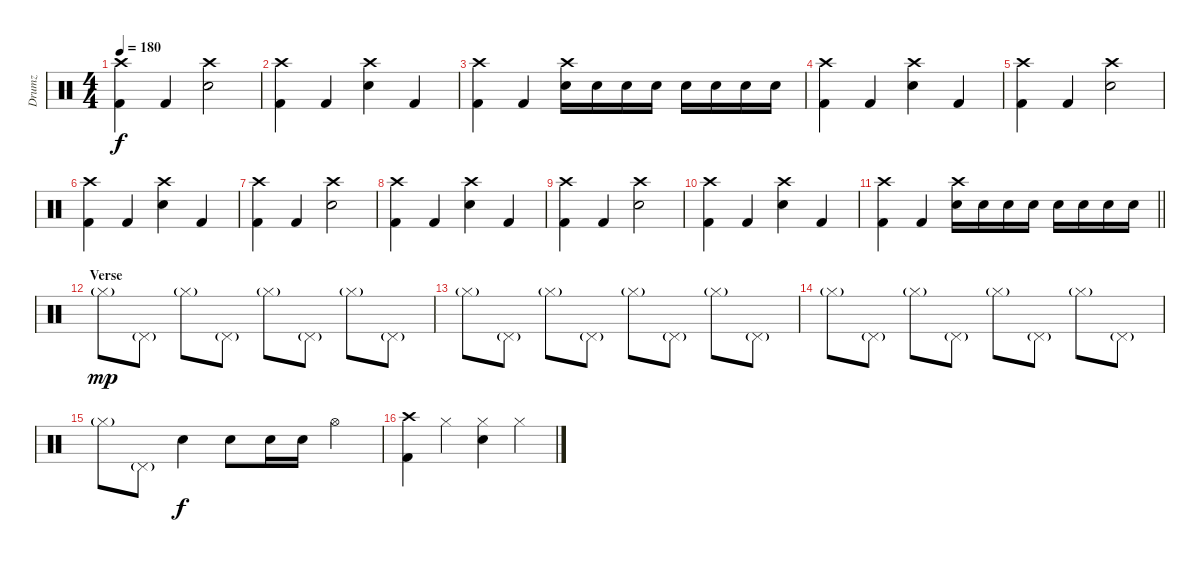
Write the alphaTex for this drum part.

\track ("Drumz" "Drumz") {instrument percussion}
\staff {score}
\articulation defaults
\ts (4 4)
\tempo 180
\clef neutral
\ks c
("Crash high (hit)" "Kick (hit) 2").4{dy f} "Kick (hit) 2".4 ("Crash high (hit)" "Snare (hit) 2").2 |
("Kick (hit) 2" "Crash high (hit)").4 "Kick (hit) 2".4 ("Snare (hit) 2" "Crash high (hit)").4 "Kick (hit) 2".4 |
("Crash high (hit)" "Kick (hit) 2").4 "Kick (hit) 2".4 ("Crash high (hit)" "Electric Snare (hit)").16 "Electric Snare (hit)".16 "Electric Snare (hit)".16 "Electric Snare (hit)".16 "Electric Snare (hit)".16 "Electric Snare (hit)".16 "Electric Snare (hit)".16 "Electric Snare (hit)".16 |
("Kick (hit) 2" "Crash high (hit)").4 "Kick (hit) 2".4 ("Snare (hit) 2" "Crash high (hit)").4 "Kick (hit) 2".4 |
("Crash high (hit)" "Kick (hit) 2").4 "Kick (hit) 2".4 ("Crash high (hit)" "Snare (hit) 2").2 |
("Kick (hit) 2" "Crash high (hit)").4 "Kick (hit) 2".4 ("Snare (hit) 2" "Crash high (hit)").4 "Kick (hit) 2".4 |
("Crash high (hit)" "Kick (hit) 2").4 "Kick (hit) 2".4 ("Crash high (hit)" "Snare (hit) 2").2 |
("Kick (hit) 2" "Crash high (hit)").4 "Kick (hit) 2".4 ("Snare (hit) 2" "Crash high (hit)").4 "Kick (hit) 2".4 |
("Crash high (hit)" "Kick (hit) 2").4 "Kick (hit) 2".4 ("Crash high (hit)" "Snare (hit) 2").2 |
("Kick (hit) 2" "Crash high (hit)").4 "Kick (hit) 2".4 ("Snare (hit) 2" "Crash high (hit)").4 "Kick (hit) 2".4 |
\barLineRight lightlight
("Crash high (hit)" "Kick (hit) 2").4 "Kick (hit) 2".4 ("Crash high (hit)" "Electric Snare (hit)").16 "Electric Snare (hit)".16 "Electric Snare (hit)".16 "Electric Snare (hit)".16 "Electric Snare (hit)".16 "Electric Snare (hit)".16 "Electric Snare (hit)".16 "Electric Snare (hit)".16 |
\section ("" "Verse")
"Hi-Hat (closed)"{g}.8{dy mp} "Pedal Hi-Hat (hit)"{g}.8 "Hi-Hat (closed)"{g}.8 "Pedal Hi-Hat (hit)"{g}.8 "Hi-Hat (closed)"{g}.8 "Pedal Hi-Hat (hit)"{g}.8 "Hi-Hat (closed)"{g}.8 "Pedal Hi-Hat (hit)"{g}.8 |
"Hi-Hat (closed)"{g}.8 "Pedal Hi-Hat (hit)"{g}.8 "Hi-Hat (closed)"{g}.8 "Pedal Hi-Hat (hit)"{g}.8 "Hi-Hat (closed)"{g}.8 "Pedal Hi-Hat (hit)"{g}.8 "Hi-Hat (closed)"{g}.8 "Pedal Hi-Hat (hit)"{g}.8 |
"Hi-Hat (closed)"{g}.8 "Pedal Hi-Hat (hit)"{g}.8 "Hi-Hat (closed)"{g}.8 "Pedal Hi-Hat (hit)"{g}.8 "Hi-Hat (closed)"{g}.8 "Pedal Hi-Hat (hit)"{g}.8 "Hi-Hat (closed)"{g}.8 "Pedal Hi-Hat (hit)"{g}.8 |
"Hi-Hat (closed)"{g}.8 "Pedal Hi-Hat (hit)"{g}.8 "Electric Snare (hit)".4{dy f} "Electric Snare (hit)".8 "Electric Snare (hit)".16 "Electric Snare (hit)".16 "Hi-Hat (open)".4 |
("Kick (hit) 2" "Crash high (hit)").4 "Hi-Hat (closed)".4 ("Hi-Hat (closed)" "Snare (hit) 2").4 "Hi-Hat (closed)".4
